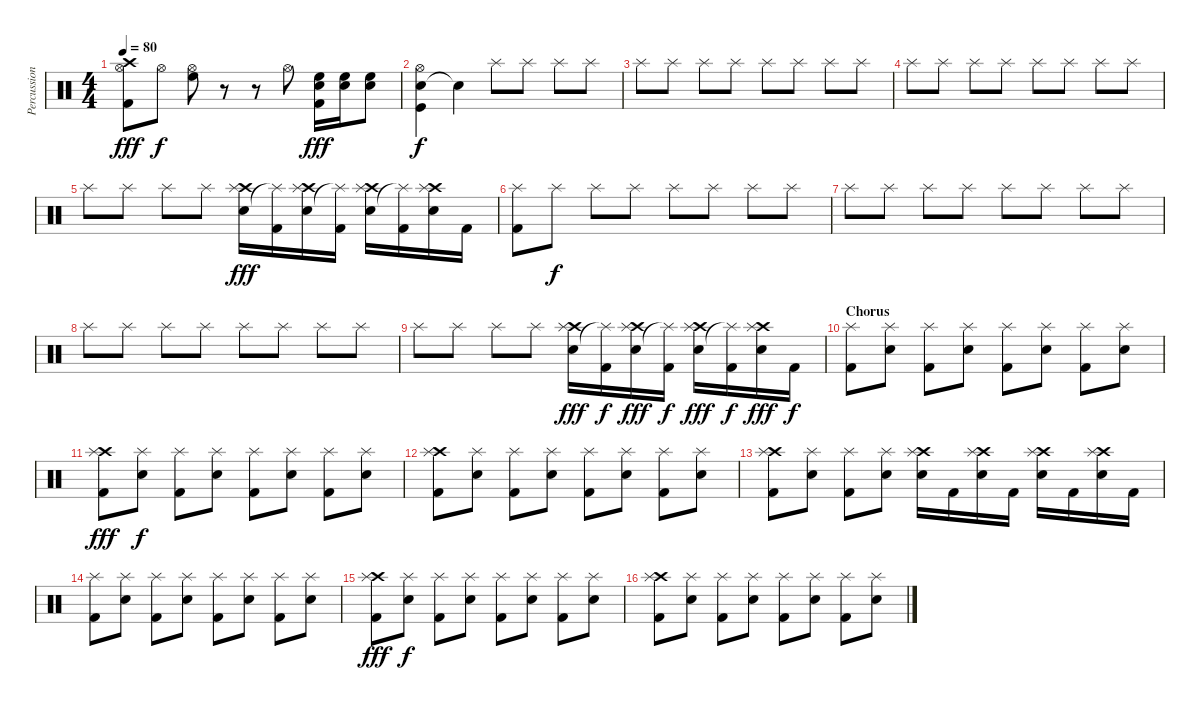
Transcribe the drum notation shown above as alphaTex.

\track ("Percussion" "Percussion") {instrument percussion}
\staff {score}
\articulation defaults
\ts (4 4)
\tempo 80
\clef neutral
\ks c
("Crash high (hit)" "Kick (hit) 2" "Hi-Hat (open)").8{dy fff} "Hi-Hat (open)".8{dy f} ("High Floor Tom (hit)" "Hi-Hat (open)").8 r.8 r.8 "Hi-Hat (open)".8 ("High Floor Tom (hit)" "Snare (hit) 2" "Kick (hit) 2").16{dy fff} ("High Floor Tom (hit)" "Snare (hit) 2").16 ("High Floor Tom (hit)" "Snare (hit) 2").8 |
("Snare (hit) 2" "Kick (hit)" "Hi-Hat (open)").4{dy f} "Snare (hit)"{t}.4 "Splash (hit)".8 "Splash (hit)".8 "Splash (hit)".8 "Splash (hit)".8 |
"Splash (hit)".8 "Splash (hit)".8 "Splash (hit)".8 "Splash (hit)".8 "Splash (hit)".8 "Splash (hit)".8 "Splash (hit)".8 "Splash (hit)".8 |
"Splash (hit)".8 "Splash (hit)".8 "Splash (hit)".8 "Splash (hit)".8 "Splash (hit)".8 "Splash (hit)".8 "Splash (hit)".8 "Splash (hit)".8 |
"Splash (hit)".8 "Splash (hit)".8 "Splash (hit)".8 "Splash (hit)".8 ("Crash high (hit)" "Snare (hit) 2" "Splash (hit)").16{dy fff} ("Kick (hit) 2" "Splash (hit)"{t}).16 ("Crash high (hit)" "Snare (hit) 2" "Splash (hit)").16 ("Kick (hit) 2" "Splash (hit)"{t}).16 ("Crash high (hit)" "Snare (hit) 2" "Splash (hit)").16 ("Kick (hit) 2" "Splash (hit)"{t}).16 ("Crash high (hit)" "Snare (hit) 2" "Splash (hit)").16 "Kick (hit) 2".16 |
("Kick (hit) 2" "Splash (hit)").8 "Splash (hit)".8{dy f} "Splash (hit)".8 "Splash (hit)".8 "Splash (hit)".8 "Splash (hit)".8 "Splash (hit)".8 "Splash (hit)".8 |
"Splash (hit)".8 "Splash (hit)".8 "Splash (hit)".8 "Splash (hit)".8 "Splash (hit)".8 "Splash (hit)".8 "Splash (hit)".8 "Splash (hit)".8 |
"Splash (hit)".8 "Splash (hit)".8 "Splash (hit)".8 "Splash (hit)".8 "Splash (hit)".8 "Splash (hit)".8 "Splash (hit)".8 "Splash (hit)".8 |
"Splash (hit)".8 "Splash (hit)".8 "Splash (hit)".8 "Splash (hit)".8 ("Crash high (hit)" "Snare (hit) 2" "Splash (hit)").16{dy fff} ("Kick (hit) 2" "Splash (hit)"{t}).16{dy f} ("Crash high (hit)" "Snare (hit) 2" "Splash (hit)").16{dy fff} ("Kick (hit) 2" "Splash (hit)"{t}).16{dy f} ("Crash high (hit)" "Snare (hit) 2" "Splash (hit)").16{dy fff} ("Kick (hit) 2" "Splash (hit)"{t}).16{dy f} ("Crash high (hit)" "Snare (hit) 2" "Splash (hit)").16{dy fff} "Kick (hit) 2".16{dy f} |
\section ("" "Chorus")
("Kick (hit) 2" "Splash (hit)").8 ("Snare (hit) 2" "Splash (hit)").8 ("Kick (hit) 2" "Splash (hit)").8 ("Snare (hit) 2" "Splash (hit)").8 ("Kick (hit) 2" "Splash (hit)").8 ("Snare (hit) 2" "Splash (hit)").8 ("Kick (hit) 2" "Splash (hit)").8 ("Snare (hit) 2" "Splash (hit)").8 |
("Crash high (hit)" "Kick (hit) 2" "Splash (hit)").8{dy fff} ("Snare (hit) 2" "Splash (hit)").8{dy f} ("Kick (hit) 2" "Splash (hit)").8 ("Snare (hit) 2" "Splash (hit)").8 ("Kick (hit) 2" "Splash (hit)").8 ("Snare (hit) 2" "Splash (hit)").8 ("Kick (hit) 2" "Splash (hit)").8 ("Snare (hit) 2" "Splash (hit)").8 |
("Crash high (hit)" "Kick (hit) 2" "Splash (hit)").8 ("Snare (hit) 2" "Splash (hit)").8 ("Kick (hit) 2" "Splash (hit)").8 ("Snare (hit) 2" "Splash (hit)").8 ("Kick (hit) 2" "Splash (hit)").8 ("Snare (hit) 2" "Splash (hit)").8 ("Kick (hit) 2" "Splash (hit)").8 ("Snare (hit) 2" "Splash (hit)").8 |
("Crash high (hit)" "Kick (hit) 2" "Splash (hit)").8 ("Snare (hit) 2" "Splash (hit)").8 ("Kick (hit) 2" "Splash (hit)").8 ("Snare (hit) 2" "Splash (hit)").8 ("Crash high (hit)" "Snare (hit) 2" "Splash (hit)").16 "Kick (hit) 2".16 ("Crash high (hit)" "Snare (hit) 2" "Splash (hit)").16 "Kick (hit) 2".16 ("Crash high (hit)" "Snare (hit) 2" "Splash (hit)").16 "Kick (hit) 2".16 ("Crash high (hit)" "Snare (hit) 2" "Splash (hit)").16 "Kick (hit) 2".16 |
("Kick (hit) 2" "Splash (hit)").8 ("Snare (hit) 2" "Splash (hit)").8 ("Kick (hit) 2" "Splash (hit)").8 ("Snare (hit) 2" "Splash (hit)").8 ("Kick (hit) 2" "Splash (hit)").8 ("Snare (hit) 2" "Splash (hit)").8 ("Kick (hit) 2" "Splash (hit)").8 ("Snare (hit) 2" "Splash (hit)").8 |
("Crash high (hit)" "Kick (hit) 2" "Splash (hit)").8{dy fff} ("Snare (hit) 2" "Splash (hit)").8{dy f} ("Kick (hit) 2" "Splash (hit)").8 ("Snare (hit) 2" "Splash (hit)").8 ("Kick (hit) 2" "Splash (hit)").8 ("Snare (hit) 2" "Splash (hit)").8 ("Kick (hit) 2" "Splash (hit)").8 ("Snare (hit) 2" "Splash (hit)").8 |
("Crash high (hit)" "Kick (hit) 2" "Splash (hit)").8 ("Snare (hit) 2" "Splash (hit)").8 ("Kick (hit) 2" "Splash (hit)").8 ("Snare (hit) 2" "Splash (hit)").8 ("Kick (hit) 2" "Splash (hit)").8 ("Snare (hit) 2" "Splash (hit)").8 ("Kick (hit) 2" "Splash (hit)").8 ("Snare (hit) 2" "Splash (hit)").8
